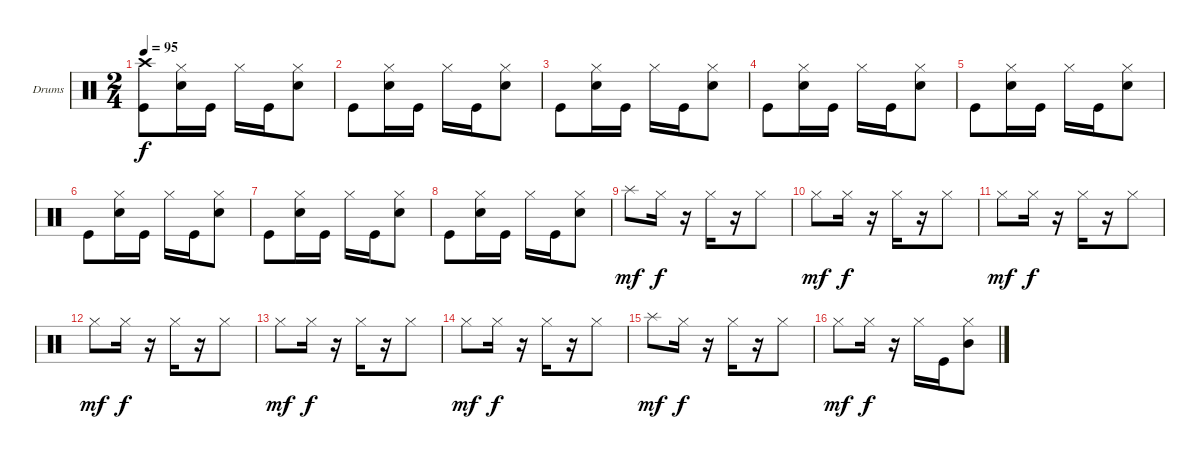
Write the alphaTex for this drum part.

\bracketExtendMode groupsimilarinstruments
\firstSystemTrackNameOrientation horizontal
\otherSystemsTrackNameOrientation horizontal
\track ("Drumkit" "Drums") {instrument percussion}
\staff {score}
\articulation defaults
\ts (2 4)
\tempo 95
\clef neutral
\ks c
("Kick (hit)" "Crash high (hit)").8{dy f} ("Hi-Hat (closed)" "Snare (hit) 2").16 "Kick (hit)".16 "Hi-Hat (closed)".16 "Kick (hit)".16 ("Hi-Hat (closed)" "Snare (hit) 2").8 |
"Kick (hit)".8 ("Hi-Hat (closed)" "Snare (hit) 2").16 "Kick (hit)".16 "Hi-Hat (closed)".16 "Kick (hit)".16 ("Hi-Hat (closed)" "Snare (hit) 2").8 |
"Kick (hit)".8 ("Hi-Hat (closed)" "Snare (hit) 2").16 "Kick (hit)".16 "Hi-Hat (closed)".16 "Kick (hit)".16 ("Hi-Hat (closed)" "Snare (hit) 2").8 |
"Kick (hit)".8 ("Hi-Hat (closed)" "Snare (hit) 2").16 "Kick (hit)".16 "Hi-Hat (closed)".16 "Kick (hit)".16 ("Hi-Hat (closed)" "Snare (hit) 2").8 |
"Kick (hit)".8 ("Hi-Hat (closed)" "Snare (hit) 2").16 "Kick (hit)".16 "Hi-Hat (closed)".16 "Kick (hit)".16 ("Hi-Hat (closed)" "Snare (hit) 2").8 |
"Kick (hit)".8 ("Hi-Hat (closed)" "Snare (hit) 2").16 "Kick (hit)".16 "Hi-Hat (closed)".16 "Kick (hit)".16 ("Hi-Hat (closed)" "Snare (hit) 2").8 |
"Kick (hit)".8 ("Hi-Hat (closed)" "Snare (hit) 2").16 "Kick (hit)".16 "Hi-Hat (closed)".16 "Kick (hit)".16 ("Hi-Hat (closed)" "Snare (hit) 2").8 |
"Kick (hit)".8 ("Hi-Hat (closed)" "Snare (hit) 2").16 "Kick (hit)".16 "Hi-Hat (closed)".16 "Kick (hit)".16 ("Hi-Hat (closed)" "Snare (hit) 2").8 |
"Splash (hit)".8{dy mf} "Hi-Hat (closed)".16{dy f} r.16 "Hi-Hat (closed)".16 r.16 "Hi-Hat (closed)".8 |
"Hi-Hat (closed)".8{dy mf} "Hi-Hat (closed)".16{dy f} r.16 "Hi-Hat (closed)".16 r.16 "Hi-Hat (closed)".8 |
"Hi-Hat (closed)".8{dy mf} "Hi-Hat (closed)".16{dy f} r.16 "Hi-Hat (closed)".16 r.16 "Hi-Hat (closed)".8 |
"Hi-Hat (closed)".8{dy mf} "Hi-Hat (closed)".16{dy f} r.16 "Hi-Hat (closed)".16 r.16 "Hi-Hat (closed)".8 |
"Hi-Hat (closed)".8{dy mf} "Hi-Hat (closed)".16{dy f} r.16 "Hi-Hat (closed)".16 r.16 "Hi-Hat (closed)".8 |
"Hi-Hat (closed)".8{dy mf} "Hi-Hat (closed)".16{dy f} r.16 "Hi-Hat (closed)".16 r.16 "Hi-Hat (closed)".8 |
"Splash (hit)".8{dy mf} "Hi-Hat (closed)".16{dy f} r.16 "Hi-Hat (closed)".16 r.16 "Hi-Hat (closed)".8 |
"Hi-Hat (closed)".8{dy mf} "Hi-Hat (closed)".16{dy f} r.16 "Hi-Hat (closed)".16 "Kick (hit)".16 ("Hi-Hat (closed)" "Mid Tom (hit)").8
